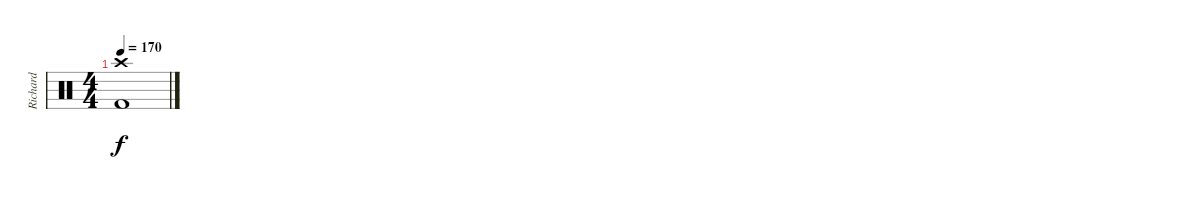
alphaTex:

\track ("Richard" "Richard") {instrument percussion}
\staff {score}
\articulation defaults
\ts (4 4)
\tempo 170
\clef neutral
\ks c
("Crash high (hit)" "Kick (hit) 2").1{dy f}
